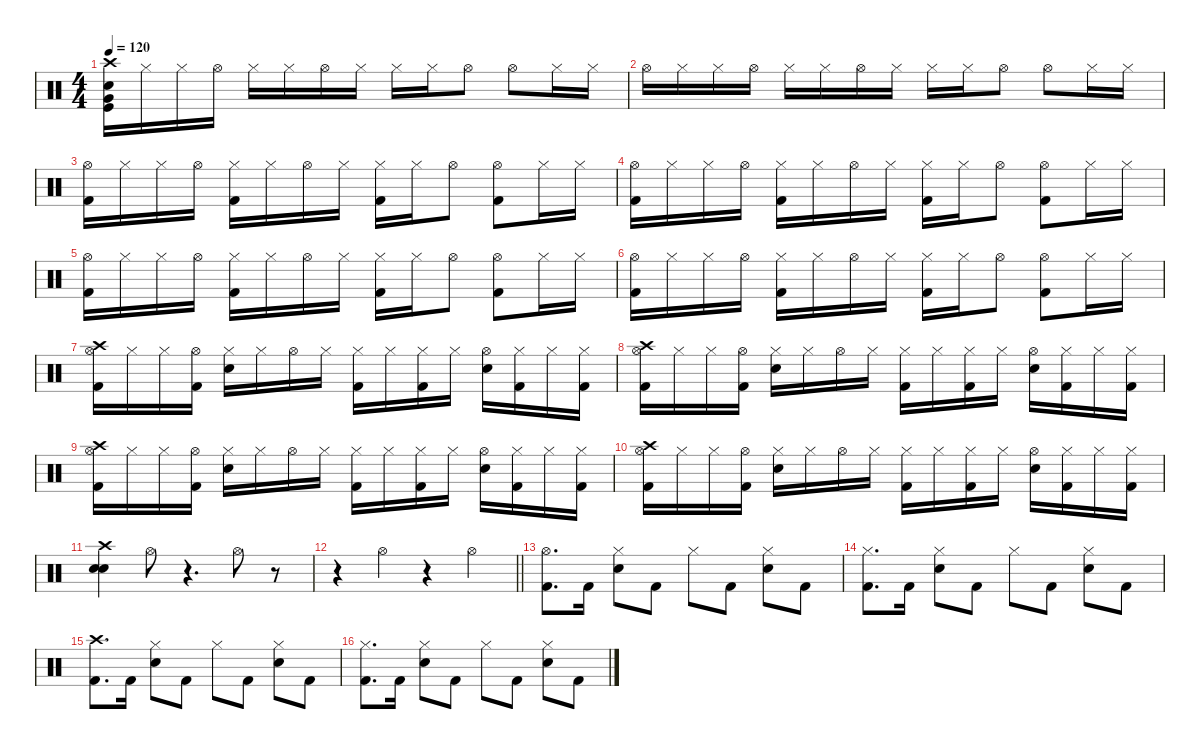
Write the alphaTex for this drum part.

\defaultSystemsLayout 4
\hideDynamics
\bracketExtendMode nobrackets
\singleTrackTrackNamePolicy hidden
\multiTrackTrackNamePolicy hidden
\firstSystemTrackNameMode fullname
\firstSystemTrackNameOrientation horizontal
\otherSystemsTrackNameOrientation horizontal
\track ("DRUMS" "drm.") {defaultSystemsLayout 4 instrument percussion}
\staff {score}
\articulation defaults
\ts (4 4)
\beaming (8 2 2 2 2)
\tempo 120
\clef neutral
\ks c
("Snare (hit) 2" "Crash high (hit)" "Very Low Tom (hit)" "Kick (hit)").16{dy f beam Down} "Hi-Hat (closed)".16{beam Down} "Hi-Hat (closed)".16{beam Down} "Hi-Hat (open)".16{beam Down} "Hi-Hat (closed)".16{beam Down} "Hi-Hat (closed)".16{beam Down} "Hi-Hat (open)".16{beam Down} "Hi-Hat (closed)".16{beam Down} "Hi-Hat (closed)".16{beam Down} "Hi-Hat (closed)".16{beam Down} "Hi-Hat (open)".8{beam Down} "Hi-Hat (open)".8{beam Down} "Hi-Hat (closed)".16{beam Down} "Hi-Hat (closed)".16{beam Down} |
"Hi-Hat (open)".16{beam Down} "Hi-Hat (closed)".16{beam Down} "Hi-Hat (closed)".16{beam Down} "Hi-Hat (open)".16{beam Down} "Hi-Hat (closed)".16{beam Down} "Hi-Hat (closed)".16{beam Down} "Hi-Hat (open)".16{beam Down} "Hi-Hat (closed)".16{beam Down} "Hi-Hat (closed)".16{beam Down} "Hi-Hat (closed)".16{beam Down} "Hi-Hat (open)".8{beam Down} "Hi-Hat (open)".8{beam Down} "Hi-Hat (closed)".16{beam Down} "Hi-Hat (closed)".16{beam Down} |
("Kick (hit) 2" "Hi-Hat (open)").16{beam Down} "Hi-Hat (closed)".16{beam Down} "Hi-Hat (closed)".16{beam Down} "Hi-Hat (open)".16{beam Down} ("Kick (hit) 2" "Hi-Hat (closed)").16{beam Down} "Hi-Hat (closed)".16{beam Down} "Hi-Hat (open)".16{beam Down} "Hi-Hat (closed)".16{beam Down} ("Kick (hit) 2" "Hi-Hat (closed)").16{beam Down} "Hi-Hat (closed)".16{beam Down} "Hi-Hat (open)".8{beam Down} ("Kick (hit) 2" "Hi-Hat (open)").8{beam Down} "Hi-Hat (closed)".16{beam Down} "Hi-Hat (closed)".16{beam Down} |
("Kick (hit) 2" "Hi-Hat (open)").16{beam Down} "Hi-Hat (closed)".16{beam Down} "Hi-Hat (closed)".16{beam Down} "Hi-Hat (open)".16{beam Down} ("Kick (hit) 2" "Hi-Hat (closed)").16{beam Down} "Hi-Hat (closed)".16{beam Down} "Hi-Hat (open)".16{beam Down} "Hi-Hat (closed)".16{beam Down} ("Kick (hit) 2" "Hi-Hat (closed)").16{beam Down} "Hi-Hat (closed)".16{beam Down} "Hi-Hat (open)".8{beam Down} ("Kick (hit) 2" "Hi-Hat (open)").8{beam Down} "Hi-Hat (closed)".16{beam Down} "Hi-Hat (closed)".16{beam Down} |
("Kick (hit) 2" "Hi-Hat (open)").16{beam Down} "Hi-Hat (closed)".16{beam Down} "Hi-Hat (closed)".16{beam Down} "Hi-Hat (open)".16{beam Down} ("Kick (hit) 2" "Hi-Hat (closed)").16{beam Down} "Hi-Hat (closed)".16{beam Down} "Hi-Hat (open)".16{beam Down} "Hi-Hat (closed)".16{beam Down} ("Kick (hit) 2" "Hi-Hat (closed)").16{beam Down} "Hi-Hat (closed)".16{beam Down} "Hi-Hat (open)".8{beam Down} ("Kick (hit) 2" "Hi-Hat (open)").8{beam Down} "Hi-Hat (closed)".16{beam Down} "Hi-Hat (closed)".16{beam Down} |
("Kick (hit) 2" "Hi-Hat (open)").16{beam Down} "Hi-Hat (closed)".16{beam Down} "Hi-Hat (closed)".16{beam Down} "Hi-Hat (open)".16{beam Down} ("Kick (hit) 2" "Hi-Hat (closed)").16{beam Down} "Hi-Hat (closed)".16{beam Down} "Hi-Hat (open)".16{beam Down} "Hi-Hat (closed)".16{beam Down} ("Kick (hit) 2" "Hi-Hat (closed)").16{beam Down} "Hi-Hat (closed)".16{beam Down} "Hi-Hat (open)".8{beam Down} ("Kick (hit) 2" "Hi-Hat (open)").8{beam Down} "Hi-Hat (closed)".16{beam Down} "Hi-Hat (closed)".16{beam Down} |
("Kick (hit) 2" "Hi-Hat (open)" "Crash high (hit)").16{beam Down} "Hi-Hat (closed)".16{beam Down} "Hi-Hat (closed)".16{beam Down} ("Kick (hit) 2" "Hi-Hat (open)").16{beam Down} ("Snare (hit) 2" "Hi-Hat (closed)").16{beam Down} "Hi-Hat (closed)".16{beam Down} "Hi-Hat (open)".16{beam Down} "Hi-Hat (closed)".16{beam Down} ("Kick (hit) 2" "Hi-Hat (closed)").16{beam Down} "Hi-Hat (closed)".16{beam Down} ("Kick (hit) 2" "Hi-Hat (closed)").16{beam Down} "Hi-Hat (closed)".16{beam Down} ("Snare (hit) 2" "Hi-Hat (open)").16{beam Down} ("Kick (hit) 2" "Hi-Hat (closed)").16{beam Down} "Hi-Hat (closed)".16{beam Down} ("Kick (hit) 2" "Hi-Hat (closed)").16{beam Down} |
("Kick (hit) 2" "Hi-Hat (open)" "Crash high (hit)").16{beam Down} "Hi-Hat (closed)".16{beam Down} "Hi-Hat (closed)".16{beam Down} ("Kick (hit) 2" "Hi-Hat (open)").16{beam Down} ("Snare (hit) 2" "Hi-Hat (closed)").16{beam Down} "Hi-Hat (closed)".16{beam Down} "Hi-Hat (open)".16{beam Down} "Hi-Hat (closed)".16{beam Down} ("Kick (hit) 2" "Hi-Hat (closed)").16{beam Down} "Hi-Hat (closed)".16{beam Down} ("Kick (hit) 2" "Hi-Hat (closed)").16{beam Down} "Hi-Hat (closed)".16{beam Down} ("Snare (hit) 2" "Hi-Hat (open)").16{beam Down} ("Kick (hit) 2" "Hi-Hat (closed)").16{beam Down} "Hi-Hat (closed)".16{beam Down} ("Kick (hit) 2" "Hi-Hat (closed)").16{beam Down} |
("Kick (hit) 2" "Hi-Hat (open)" "Crash high (hit)").16{beam Down} "Hi-Hat (closed)".16{beam Down} "Hi-Hat (closed)".16{beam Down} ("Kick (hit) 2" "Hi-Hat (open)").16{beam Down} ("Snare (hit) 2" "Hi-Hat (closed)").16{beam Down} "Hi-Hat (closed)".16{beam Down} "Hi-Hat (open)".16{beam Down} "Hi-Hat (closed)".16{beam Down} ("Kick (hit) 2" "Hi-Hat (closed)").16{beam Down} "Hi-Hat (closed)".16{beam Down} ("Kick (hit) 2" "Hi-Hat (closed)").16{beam Down} "Hi-Hat (closed)".16{beam Down} ("Snare (hit) 2" "Hi-Hat (open)").16{beam Down} ("Kick (hit) 2" "Hi-Hat (closed)").16{beam Down} "Hi-Hat (closed)".16{beam Down} ("Kick (hit) 2" "Hi-Hat (closed)").16{beam Down} |
("Kick (hit) 2" "Hi-Hat (open)" "Crash high (hit)").16{beam Down} "Hi-Hat (closed)".16{beam Down} "Hi-Hat (closed)".16{beam Down} ("Kick (hit) 2" "Hi-Hat (open)").16{beam Down} ("Snare (hit) 2" "Hi-Hat (closed)").16{beam Down} "Hi-Hat (closed)".16{beam Down} "Hi-Hat (open)".16{beam Down} "Hi-Hat (closed)".16{beam Down} ("Kick (hit) 2" "Hi-Hat (closed)").16{beam Down} "Hi-Hat (closed)".16{beam Down} ("Kick (hit) 2" "Hi-Hat (closed)").16{beam Down} "Hi-Hat (closed)".16{beam Down} ("Snare (hit) 2" "Hi-Hat (open)").16{beam Down} ("Kick (hit) 2" "Hi-Hat (closed)").16{beam Down} "Hi-Hat (closed)".16{beam Down} ("Kick (hit) 2" "Hi-Hat (closed)").16{beam Down} |
("Snare (hit) 2" "Snare (hit) 2" "Crash high (hit)").4{beam Down} "Hi-Hat (open)".8{beam Down} r.4{d beam Down} "Hi-Hat (open)".8{beam Down} r.8{beam Down} |
\barLineRight lightlight
r.4{beam Down} "Hi-Hat (open)".4{beam Down} r.4{beam Down} "Hi-Hat (open)".4{beam Down} |
("Kick (hit) 2" "Hi-Hat (open)").8{d beam Down} "Kick (hit) 2".16{beam Down} ("Snare (hit) 2" "Hi-Hat (closed)").8{beam Down} "Kick (hit) 2".8{beam Down} "Hi-Hat (closed)".8{beam Down} "Kick (hit) 2".8{beam Down} ("Snare (hit) 2" "Hi-Hat (closed)").8{beam Down} "Kick (hit) 2".8{beam Down} |
("Kick (hit) 2" "Hi-Hat (closed)").8{d beam Down} "Kick (hit) 2".16{beam Down} ("Snare (hit) 2" "Hi-Hat (closed)").8{beam Down} "Kick (hit) 2".8{beam Down} "Hi-Hat (closed)".8{beam Down} "Kick (hit) 2".8{beam Down} ("Snare (hit) 2" "Hi-Hat (closed)").8{beam Down} "Kick (hit) 2".8{beam Down} |
("Kick (hit) 2" "Crash high (hit)").8{d beam Down} "Kick (hit) 2".16{beam Down} ("Snare (hit) 2" "Hi-Hat (closed)").8{beam Down} "Kick (hit) 2".8{beam Down} "Hi-Hat (closed)".8{beam Down} "Kick (hit) 2".8{beam Down} ("Snare (hit) 2" "Hi-Hat (closed)").8{beam Down} "Kick (hit) 2".8{beam Down} |
("Kick (hit) 2" "Hi-Hat (closed)").8{d beam Down} "Kick (hit) 2".16{beam Down} ("Snare (hit) 2" "Hi-Hat (closed)").8{beam Down} "Kick (hit) 2".8{beam Down} "Hi-Hat (closed)".8{beam Down} "Kick (hit) 2".8{beam Down} ("Snare (hit) 2" "Hi-Hat (closed)").8{beam Down} "Kick (hit) 2".8{beam Down}
